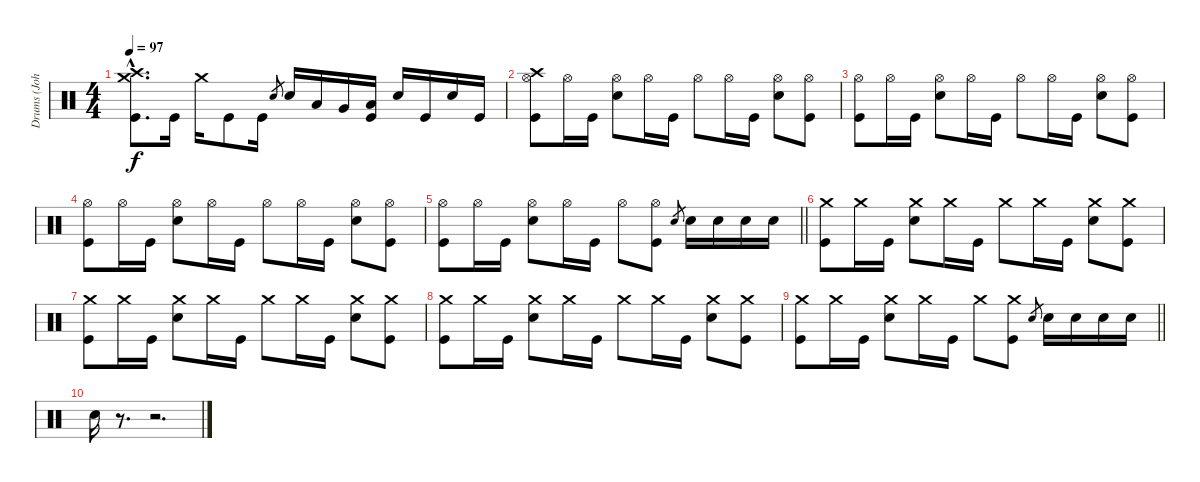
\track ("Drums (John Ensminger)" "Drums (Joh") {instrument percussion}
\staff {score}
\articulation defaults
\ts (4 4)
\tempo 97
\clef neutral
\ks c
("Crash medium (hit)"{hac} "Crash high (hit)"{hac} "Kick (hit)"{hac}).8{d dy f} "Kick (hit)".16 "Crash medium (hit)".16 "Kick (hit)".8 "Kick (hit)".16 "Electric Snare (hit)".8{gr} "Electric Snare (hit)".16 "Low Tom (hit)".16 "Very Low Tom (hit)".16 ("Low Floor Tom (hit)" "Kick (hit)").16 "Electric Snare (hit)".16 "Kick (hit)".16 "Electric Snare (hit)".16 "Kick (hit)".16 |
("Crash high (hit)" "Hi-Hat (open)" "Kick (hit)").8 "Hi-Hat (open)".16 "Kick (hit)".16 ("Hi-Hat (open)" "Electric Snare (hit)").8 "Hi-Hat (open)".16 "Kick (hit)".16 "Hi-Hat (open)".8 "Hi-Hat (open)".16 "Kick (hit)".16 ("Hi-Hat (open)" "Electric Snare (hit)").8 ("Hi-Hat (open)" "Kick (hit)").8 |
("Hi-Hat (open)" "Kick (hit)").8 "Hi-Hat (open)".16 "Kick (hit)".16 ("Hi-Hat (open)" "Electric Snare (hit)").8 "Hi-Hat (open)".16 "Kick (hit)".16 "Hi-Hat (open)".8 "Hi-Hat (open)".16 "Kick (hit)".16 ("Hi-Hat (open)" "Electric Snare (hit)").8 ("Hi-Hat (open)" "Kick (hit)").8 |
("Hi-Hat (open)" "Kick (hit)").8 "Hi-Hat (open)".16 "Kick (hit)".16 ("Hi-Hat (open)" "Electric Snare (hit)").8 "Hi-Hat (open)".16 "Kick (hit)".16 "Hi-Hat (open)".8 "Hi-Hat (open)".16 "Kick (hit)".16 ("Hi-Hat (open)" "Electric Snare (hit)").8 ("Hi-Hat (open)" "Kick (hit)").8 |
\barLineRight lightlight
("Hi-Hat (open)" "Kick (hit)").8 "Hi-Hat (open)".16 "Kick (hit)".16 ("Hi-Hat (open)" "Electric Snare (hit)").8 "Hi-Hat (open)".16 "Kick (hit)".16 "Hi-Hat (open)".8 ("Hi-Hat (open)" "Kick (hit)").8 "Electric Snare (hit)".8{gr} "Electric Snare (hit)".16 "Electric Snare (hit)".16 "Electric Snare (hit)".16 "Electric Snare (hit)".16 |
("Crash medium (hit)" "Kick (hit)").8 "Crash medium (hit)".16 "Kick (hit)".16 ("Crash medium (hit)" "Electric Snare (hit)").8 "Crash medium (hit)".16 "Kick (hit)".16 "Crash medium (hit)".8 "Crash medium (hit)".16 "Kick (hit)".16 ("Crash medium (hit)" "Electric Snare (hit)").8 ("Crash medium (hit)" "Kick (hit)").8 |
("Crash medium (hit)" "Kick (hit)").8 "Crash medium (hit)".16 "Kick (hit)".16 ("Crash medium (hit)" "Electric Snare (hit)").8 "Crash medium (hit)".16 "Kick (hit)".16 "Crash medium (hit)".8 "Crash medium (hit)".16 "Kick (hit)".16 ("Crash medium (hit)" "Electric Snare (hit)").8 ("Crash medium (hit)" "Kick (hit)").8 |
("Crash medium (hit)" "Kick (hit)").8 "Crash medium (hit)".16 "Kick (hit)".16 ("Crash medium (hit)" "Electric Snare (hit)").8 "Crash medium (hit)".16 "Kick (hit)".16 "Crash medium (hit)".8 "Crash medium (hit)".16 "Kick (hit)".16 ("Crash medium (hit)" "Electric Snare (hit)").8 ("Crash medium (hit)" "Kick (hit)").8 |
\barLineRight lightlight
("Crash medium (hit)" "Kick (hit)").8 "Crash medium (hit)".16 "Kick (hit)".16 ("Crash medium (hit)" "Electric Snare (hit)").8 "Crash medium (hit)".16 "Kick (hit)".16 "Crash medium (hit)".8 ("Crash medium (hit)" "Kick (hit)").8 "Electric Snare (hit)".8{gr} "Electric Snare (hit)".16 "Electric Snare (hit)".16 "Electric Snare (hit)".16 "Electric Snare (hit)".16 |
"Electric Snare (hit)".16 r.8{d} r.2{d}
